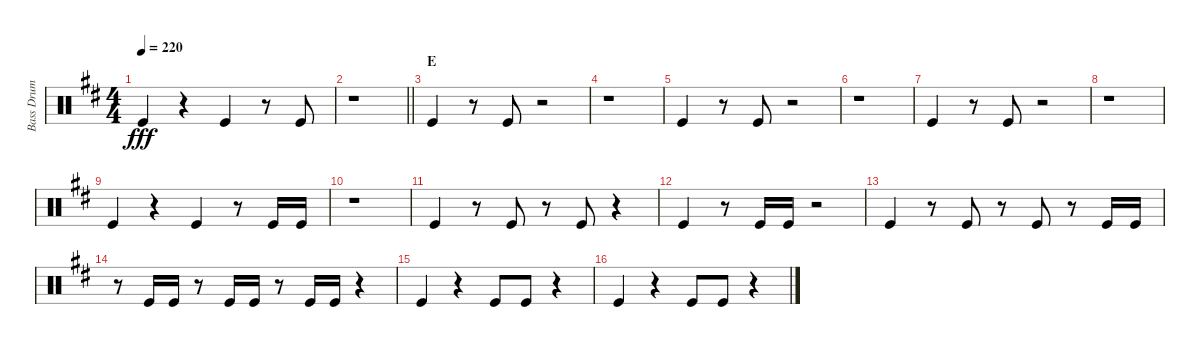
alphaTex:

\track ("Bass Drum" "Bass Drum") {instrument percussion}
\staff {score}
\articulation defaults
\ts (4 4)
\tempo 220
\clef neutral
\ks d "Kick (hit)".4{dy fff}
r.4 "Kick (hit)".4 r.8 "Kick (hit)".8 |
\barLineRight lightlight
r.1 |
\section ("" "E")
"Kick (hit)".4 r.8 "Kick (hit)".8 r.2 |
r.1 |
"Kick (hit)".4 r.8 "Kick (hit)".8 r.2 |
r.1 |
"Kick (hit)".4 r.8 "Kick (hit)".8 r.2 |
r.1 |
"Kick (hit)".4 r.4 "Kick (hit)".4 r.8 "Kick (hit)".16 "Kick (hit)".16 |
r.1 |
"Kick (hit)".4 r.8 "Kick (hit)".8 r.8 "Kick (hit)".8 r.4 |
"Kick (hit)".4 r.8 "Kick (hit)".16 "Kick (hit)".16 r.2 |
"Kick (hit)".4 r.8 "Kick (hit)".8 r.8 "Kick (hit)".8 r.8 "Kick (hit)".16 "Kick (hit)".16 |
r.8 "Kick (hit)".16 "Kick (hit)".16 r.8 "Kick (hit)".16 "Kick (hit)".16 r.8 "Kick (hit)".16 "Kick (hit)".16 r.4 |
"Kick (hit)".4 r.4 "Kick (hit)".8 "Kick (hit)".8 r.4 |
"Kick (hit)".4 r.4 "Kick (hit)".8 "Kick (hit)".8 r.4
